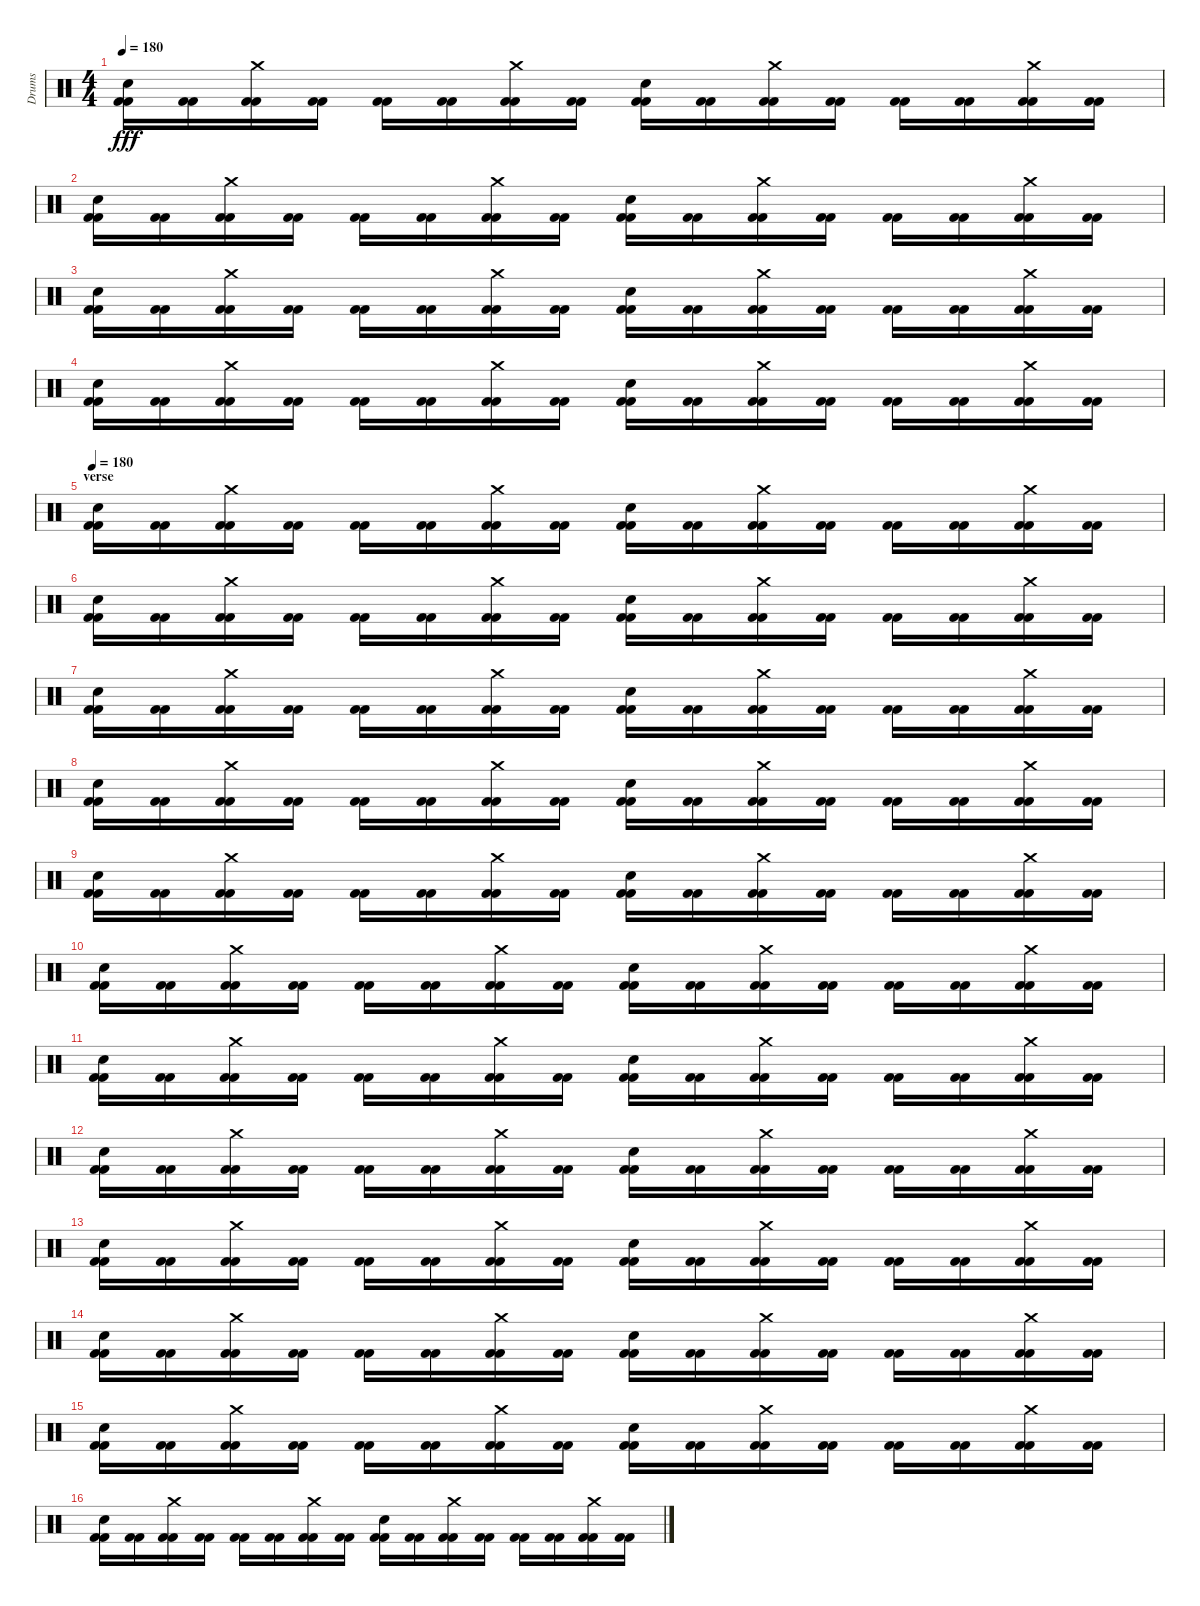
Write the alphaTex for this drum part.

\track ("Drums" "Drums") {instrument percussion}
\staff {score}
\articulation defaults
\ts (4 4)
\tempo 180
\clef neutral
\ks c
("Electric Snare (hit)" "Kick (hit) 2" "Kick (hit) 2").16{dy fff} ("Kick (hit) 2" "Kick (hit) 2").16 ("Crash medium (hit)" "Kick (hit) 2" "Kick (hit) 2").16 ("Kick (hit) 2" "Kick (hit) 2").16 ("Kick (hit) 2" "Kick (hit) 2").16 ("Kick (hit) 2" "Kick (hit) 2").16 ("Crash medium (hit)" "Kick (hit) 2" "Kick (hit) 2").16 ("Kick (hit) 2" "Kick (hit) 2").16 ("Electric Snare (hit)" "Kick (hit) 2" "Kick (hit) 2").16 ("Kick (hit) 2" "Kick (hit) 2").16 ("Crash medium (hit)" "Kick (hit) 2" "Kick (hit) 2").16 ("Kick (hit) 2" "Kick (hit) 2").16 ("Kick (hit) 2" "Kick (hit) 2").16 ("Kick (hit) 2" "Kick (hit) 2").16 ("Crash medium (hit)" "Kick (hit) 2" "Kick (hit) 2").16 ("Kick (hit) 2" "Kick (hit) 2").16 |
("Electric Snare (hit)" "Kick (hit) 2" "Kick (hit) 2").16 ("Kick (hit) 2" "Kick (hit) 2").16 ("Crash medium (hit)" "Kick (hit) 2" "Kick (hit) 2").16 ("Kick (hit) 2" "Kick (hit) 2").16 ("Kick (hit) 2" "Kick (hit) 2").16 ("Kick (hit) 2" "Kick (hit) 2").16 ("Crash medium (hit)" "Kick (hit) 2" "Kick (hit) 2").16 ("Kick (hit) 2" "Kick (hit) 2").16 ("Electric Snare (hit)" "Kick (hit) 2" "Kick (hit) 2").16 ("Kick (hit) 2" "Kick (hit) 2").16 ("Crash medium (hit)" "Kick (hit) 2" "Kick (hit) 2").16 ("Kick (hit) 2" "Kick (hit) 2").16 ("Kick (hit) 2" "Kick (hit) 2").16 ("Kick (hit) 2" "Kick (hit) 2").16 ("Crash medium (hit)" "Kick (hit) 2" "Kick (hit) 2").16 ("Kick (hit) 2" "Kick (hit) 2").16 |
("Electric Snare (hit)" "Kick (hit) 2" "Kick (hit) 2").16 ("Kick (hit) 2" "Kick (hit) 2").16 ("Crash medium (hit)" "Kick (hit) 2" "Kick (hit) 2").16 ("Kick (hit) 2" "Kick (hit) 2").16 ("Kick (hit) 2" "Kick (hit) 2").16 ("Kick (hit) 2" "Kick (hit) 2").16 ("Crash medium (hit)" "Kick (hit) 2" "Kick (hit) 2").16 ("Kick (hit) 2" "Kick (hit) 2").16 ("Electric Snare (hit)" "Kick (hit) 2" "Kick (hit) 2").16 ("Kick (hit) 2" "Kick (hit) 2").16 ("Crash medium (hit)" "Kick (hit) 2" "Kick (hit) 2").16 ("Kick (hit) 2" "Kick (hit) 2").16 ("Kick (hit) 2" "Kick (hit) 2").16 ("Kick (hit) 2" "Kick (hit) 2").16 ("Crash medium (hit)" "Kick (hit) 2" "Kick (hit) 2").16 ("Kick (hit) 2" "Kick (hit) 2").16 |
("Electric Snare (hit)" "Kick (hit) 2" "Kick (hit) 2").16 ("Kick (hit) 2" "Kick (hit) 2").16 ("Crash medium (hit)" "Kick (hit) 2" "Kick (hit) 2").16 ("Kick (hit) 2" "Kick (hit) 2").16 ("Kick (hit) 2" "Kick (hit) 2").16 ("Kick (hit) 2" "Kick (hit) 2").16 ("Crash medium (hit)" "Kick (hit) 2" "Kick (hit) 2").16 ("Kick (hit) 2" "Kick (hit) 2").16 ("Electric Snare (hit)" "Kick (hit) 2" "Kick (hit) 2").16 ("Kick (hit) 2" "Kick (hit) 2").16 ("Crash medium (hit)" "Kick (hit) 2" "Kick (hit) 2").16 ("Kick (hit) 2" "Kick (hit) 2").16 ("Kick (hit) 2" "Kick (hit) 2").16 ("Kick (hit) 2" "Kick (hit) 2").16 ("Crash medium (hit)" "Kick (hit) 2" "Kick (hit) 2").16 ("Kick (hit) 2" "Kick (hit) 2").16 |
\section ("" "verse")
\tempo 180
("Electric Snare (hit)" "Kick (hit) 2" "Kick (hit) 2").16 ("Kick (hit) 2" "Kick (hit) 2").16 ("Crash medium (hit)" "Kick (hit) 2" "Kick (hit) 2").16 ("Kick (hit) 2" "Kick (hit) 2").16 ("Kick (hit) 2" "Kick (hit) 2").16 ("Kick (hit) 2" "Kick (hit) 2").16 ("Crash medium (hit)" "Kick (hit) 2" "Kick (hit) 2").16 ("Kick (hit) 2" "Kick (hit) 2").16 ("Electric Snare (hit)" "Kick (hit) 2" "Kick (hit) 2").16 ("Kick (hit) 2" "Kick (hit) 2").16 ("Crash medium (hit)" "Kick (hit) 2" "Kick (hit) 2").16 ("Kick (hit) 2" "Kick (hit) 2").16 ("Kick (hit) 2" "Kick (hit) 2").16 ("Kick (hit) 2" "Kick (hit) 2").16 ("Crash medium (hit)" "Kick (hit) 2" "Kick (hit) 2").16 ("Kick (hit) 2" "Kick (hit) 2").16 |
("Electric Snare (hit)" "Kick (hit) 2" "Kick (hit) 2").16 ("Kick (hit) 2" "Kick (hit) 2").16 ("Crash medium (hit)" "Kick (hit) 2" "Kick (hit) 2").16 ("Kick (hit) 2" "Kick (hit) 2").16 ("Kick (hit) 2" "Kick (hit) 2").16 ("Kick (hit) 2" "Kick (hit) 2").16 ("Crash medium (hit)" "Kick (hit) 2" "Kick (hit) 2").16 ("Kick (hit) 2" "Kick (hit) 2").16 ("Electric Snare (hit)" "Kick (hit) 2" "Kick (hit) 2").16 ("Kick (hit) 2" "Kick (hit) 2").16 ("Crash medium (hit)" "Kick (hit) 2" "Kick (hit) 2").16 ("Kick (hit) 2" "Kick (hit) 2").16 ("Kick (hit) 2" "Kick (hit) 2").16 ("Kick (hit) 2" "Kick (hit) 2").16 ("Crash medium (hit)" "Kick (hit) 2" "Kick (hit) 2").16 ("Kick (hit) 2" "Kick (hit) 2").16 |
("Electric Snare (hit)" "Kick (hit) 2" "Kick (hit) 2").16 ("Kick (hit) 2" "Kick (hit) 2").16 ("Crash medium (hit)" "Kick (hit) 2" "Kick (hit) 2").16 ("Kick (hit) 2" "Kick (hit) 2").16 ("Kick (hit) 2" "Kick (hit) 2").16 ("Kick (hit) 2" "Kick (hit) 2").16 ("Crash medium (hit)" "Kick (hit) 2" "Kick (hit) 2").16 ("Kick (hit) 2" "Kick (hit) 2").16 ("Electric Snare (hit)" "Kick (hit) 2" "Kick (hit) 2").16 ("Kick (hit) 2" "Kick (hit) 2").16 ("Crash medium (hit)" "Kick (hit) 2" "Kick (hit) 2").16 ("Kick (hit) 2" "Kick (hit) 2").16 ("Kick (hit) 2" "Kick (hit) 2").16 ("Kick (hit) 2" "Kick (hit) 2").16 ("Crash medium (hit)" "Kick (hit) 2" "Kick (hit) 2").16 ("Kick (hit) 2" "Kick (hit) 2").16 |
("Electric Snare (hit)" "Kick (hit) 2" "Kick (hit) 2").16 ("Kick (hit) 2" "Kick (hit) 2").16 ("Crash medium (hit)" "Kick (hit) 2" "Kick (hit) 2").16 ("Kick (hit) 2" "Kick (hit) 2").16 ("Kick (hit) 2" "Kick (hit) 2").16 ("Kick (hit) 2" "Kick (hit) 2").16 ("Crash medium (hit)" "Kick (hit) 2" "Kick (hit) 2").16 ("Kick (hit) 2" "Kick (hit) 2").16 ("Electric Snare (hit)" "Kick (hit) 2" "Kick (hit) 2").16 ("Kick (hit) 2" "Kick (hit) 2").16 ("Crash medium (hit)" "Kick (hit) 2" "Kick (hit) 2").16 ("Kick (hit) 2" "Kick (hit) 2").16 ("Kick (hit) 2" "Kick (hit) 2").16 ("Kick (hit) 2" "Kick (hit) 2").16 ("Crash medium (hit)" "Kick (hit) 2" "Kick (hit) 2").16 ("Kick (hit) 2" "Kick (hit) 2").16 |
("Electric Snare (hit)" "Kick (hit) 2" "Kick (hit) 2").16 ("Kick (hit) 2" "Kick (hit) 2").16 ("Crash medium (hit)" "Kick (hit) 2" "Kick (hit) 2").16 ("Kick (hit) 2" "Kick (hit) 2").16 ("Kick (hit) 2" "Kick (hit) 2").16 ("Kick (hit) 2" "Kick (hit) 2").16 ("Crash medium (hit)" "Kick (hit) 2" "Kick (hit) 2").16 ("Kick (hit) 2" "Kick (hit) 2").16 ("Electric Snare (hit)" "Kick (hit) 2" "Kick (hit) 2").16 ("Kick (hit) 2" "Kick (hit) 2").16 ("Crash medium (hit)" "Kick (hit) 2" "Kick (hit) 2").16 ("Kick (hit) 2" "Kick (hit) 2").16 ("Kick (hit) 2" "Kick (hit) 2").16 ("Kick (hit) 2" "Kick (hit) 2").16 ("Crash medium (hit)" "Kick (hit) 2" "Kick (hit) 2").16 ("Kick (hit) 2" "Kick (hit) 2").16 |
("Electric Snare (hit)" "Kick (hit) 2" "Kick (hit) 2").16 ("Kick (hit) 2" "Kick (hit) 2").16 ("Crash medium (hit)" "Kick (hit) 2" "Kick (hit) 2").16 ("Kick (hit) 2" "Kick (hit) 2").16 ("Kick (hit) 2" "Kick (hit) 2").16 ("Kick (hit) 2" "Kick (hit) 2").16 ("Crash medium (hit)" "Kick (hit) 2" "Kick (hit) 2").16 ("Kick (hit) 2" "Kick (hit) 2").16 ("Electric Snare (hit)" "Kick (hit) 2" "Kick (hit) 2").16 ("Kick (hit) 2" "Kick (hit) 2").16 ("Crash medium (hit)" "Kick (hit) 2" "Kick (hit) 2").16 ("Kick (hit) 2" "Kick (hit) 2").16 ("Kick (hit) 2" "Kick (hit) 2").16 ("Kick (hit) 2" "Kick (hit) 2").16 ("Crash medium (hit)" "Kick (hit) 2" "Kick (hit) 2").16 ("Kick (hit) 2" "Kick (hit) 2").16 |
("Electric Snare (hit)" "Kick (hit) 2" "Kick (hit) 2").16 ("Kick (hit) 2" "Kick (hit) 2").16 ("Crash medium (hit)" "Kick (hit) 2" "Kick (hit) 2").16 ("Kick (hit) 2" "Kick (hit) 2").16 ("Kick (hit) 2" "Kick (hit) 2").16 ("Kick (hit) 2" "Kick (hit) 2").16 ("Crash medium (hit)" "Kick (hit) 2" "Kick (hit) 2").16 ("Kick (hit) 2" "Kick (hit) 2").16 ("Electric Snare (hit)" "Kick (hit) 2" "Kick (hit) 2").16 ("Kick (hit) 2" "Kick (hit) 2").16 ("Crash medium (hit)" "Kick (hit) 2" "Kick (hit) 2").16 ("Kick (hit) 2" "Kick (hit) 2").16 ("Kick (hit) 2" "Kick (hit) 2").16 ("Kick (hit) 2" "Kick (hit) 2").16 ("Crash medium (hit)" "Kick (hit) 2" "Kick (hit) 2").16 ("Kick (hit) 2" "Kick (hit) 2").16 |
("Electric Snare (hit)" "Kick (hit) 2" "Kick (hit) 2").16 ("Kick (hit) 2" "Kick (hit) 2").16 ("Crash medium (hit)" "Kick (hit) 2" "Kick (hit) 2").16 ("Kick (hit) 2" "Kick (hit) 2").16 ("Kick (hit) 2" "Kick (hit) 2").16 ("Kick (hit) 2" "Kick (hit) 2").16 ("Crash medium (hit)" "Kick (hit) 2" "Kick (hit) 2").16 ("Kick (hit) 2" "Kick (hit) 2").16 ("Electric Snare (hit)" "Kick (hit) 2" "Kick (hit) 2").16 ("Kick (hit) 2" "Kick (hit) 2").16 ("Crash medium (hit)" "Kick (hit) 2" "Kick (hit) 2").16 ("Kick (hit) 2" "Kick (hit) 2").16 ("Kick (hit) 2" "Kick (hit) 2").16 ("Kick (hit) 2" "Kick (hit) 2").16 ("Crash medium (hit)" "Kick (hit) 2" "Kick (hit) 2").16 ("Kick (hit) 2" "Kick (hit) 2").16 |
("Electric Snare (hit)" "Kick (hit) 2" "Kick (hit) 2").16 ("Kick (hit) 2" "Kick (hit) 2").16 ("Crash medium (hit)" "Kick (hit) 2" "Kick (hit) 2").16 ("Kick (hit) 2" "Kick (hit) 2").16 ("Kick (hit) 2" "Kick (hit) 2").16 ("Kick (hit) 2" "Kick (hit) 2").16 ("Crash medium (hit)" "Kick (hit) 2" "Kick (hit) 2").16 ("Kick (hit) 2" "Kick (hit) 2").16 ("Electric Snare (hit)" "Kick (hit) 2" "Kick (hit) 2").16 ("Kick (hit) 2" "Kick (hit) 2").16 ("Crash medium (hit)" "Kick (hit) 2" "Kick (hit) 2").16 ("Kick (hit) 2" "Kick (hit) 2").16 ("Kick (hit) 2" "Kick (hit) 2").16 ("Kick (hit) 2" "Kick (hit) 2").16 ("Crash medium (hit)" "Kick (hit) 2" "Kick (hit) 2").16 ("Kick (hit) 2" "Kick (hit) 2").16 |
("Electric Snare (hit)" "Kick (hit) 2" "Kick (hit) 2").16 ("Kick (hit) 2" "Kick (hit) 2").16 ("Crash medium (hit)" "Kick (hit) 2" "Kick (hit) 2").16 ("Kick (hit) 2" "Kick (hit) 2").16 ("Kick (hit) 2" "Kick (hit) 2").16 ("Kick (hit) 2" "Kick (hit) 2").16 ("Crash medium (hit)" "Kick (hit) 2" "Kick (hit) 2").16 ("Kick (hit) 2" "Kick (hit) 2").16 ("Electric Snare (hit)" "Kick (hit) 2" "Kick (hit) 2").16 ("Kick (hit) 2" "Kick (hit) 2").16 ("Crash medium (hit)" "Kick (hit) 2" "Kick (hit) 2").16 ("Kick (hit) 2" "Kick (hit) 2").16 ("Kick (hit) 2" "Kick (hit) 2").16 ("Kick (hit) 2" "Kick (hit) 2").16 ("Crash medium (hit)" "Kick (hit) 2" "Kick (hit) 2").16 ("Kick (hit) 2" "Kick (hit) 2").16 |
("Electric Snare (hit)" "Kick (hit) 2" "Kick (hit) 2").16 ("Kick (hit) 2" "Kick (hit) 2").16 ("Crash medium (hit)" "Kick (hit) 2" "Kick (hit) 2").16 ("Kick (hit) 2" "Kick (hit) 2").16 ("Kick (hit) 2" "Kick (hit) 2").16 ("Kick (hit) 2" "Kick (hit) 2").16 ("Crash medium (hit)" "Kick (hit) 2" "Kick (hit) 2").16 ("Kick (hit) 2" "Kick (hit) 2").16 ("Electric Snare (hit)" "Kick (hit) 2" "Kick (hit) 2").16 ("Kick (hit) 2" "Kick (hit) 2").16 ("Crash medium (hit)" "Kick (hit) 2" "Kick (hit) 2").16 ("Kick (hit) 2" "Kick (hit) 2").16 ("Kick (hit) 2" "Kick (hit) 2").16 ("Kick (hit) 2" "Kick (hit) 2").16 ("Crash medium (hit)" "Kick (hit) 2" "Kick (hit) 2").16 ("Kick (hit) 2" "Kick (hit) 2").16 |
("Electric Snare (hit)" "Kick (hit) 2" "Kick (hit) 2").16 ("Kick (hit) 2" "Kick (hit) 2").16 ("Crash medium (hit)" "Kick (hit) 2" "Kick (hit) 2").16 ("Kick (hit) 2" "Kick (hit) 2").16 ("Kick (hit) 2" "Kick (hit) 2").16 ("Kick (hit) 2" "Kick (hit) 2").16 ("Crash medium (hit)" "Kick (hit) 2" "Kick (hit) 2").16 ("Kick (hit) 2" "Kick (hit) 2").16 ("Electric Snare (hit)" "Kick (hit) 2" "Kick (hit) 2").16 ("Kick (hit) 2" "Kick (hit) 2").16 ("Crash medium (hit)" "Kick (hit) 2" "Kick (hit) 2").16 ("Kick (hit) 2" "Kick (hit) 2").16 ("Kick (hit) 2" "Kick (hit) 2").16 ("Kick (hit) 2" "Kick (hit) 2").16 ("Crash medium (hit)" "Kick (hit) 2" "Kick (hit) 2").16 ("Kick (hit) 2" "Kick (hit) 2").16
